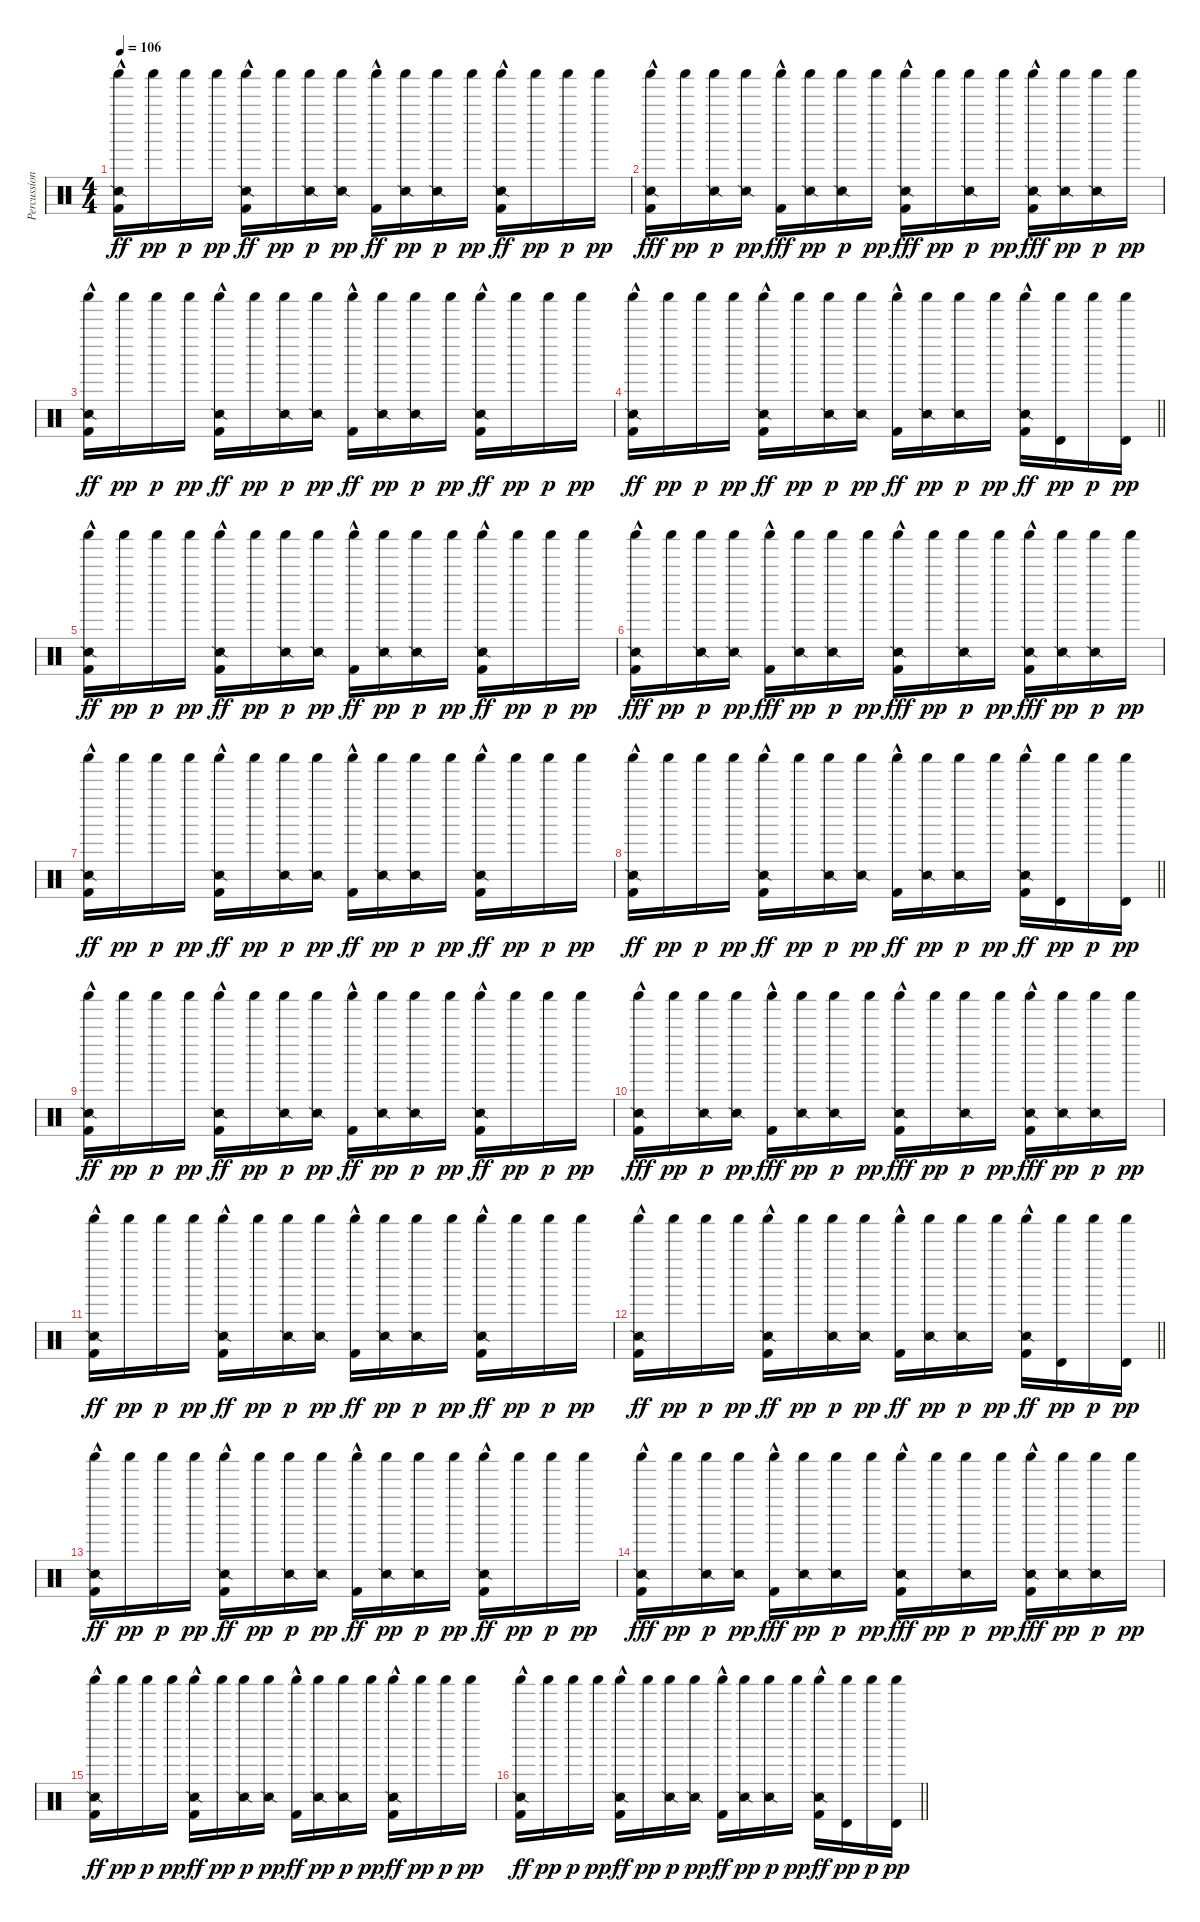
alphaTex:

\track ("Percussion" "Percussion") {instrument percussion}
\staff {score}
\articulation defaults
\ts (4 4)
\tempo 106
\clef neutral
\ks c
("Snare (side stick) 2" "Shaker (hit)" "Kick (hit) 2"{hac}).16{dy ff} "Shaker (hit)".16{dy pp} "Shaker (hit)".16{dy p} "Shaker (hit)".16{dy pp} ("Snare (side stick) 2" "Shaker (hit)" "Kick (hit) 2"{hac}).16{dy ff} "Shaker (hit)".16{dy pp} ("Snare (side stick) 2" "Shaker (hit)").16{dy p} ("Snare (side stick) 2" "Shaker (hit)").16{dy pp} ("Shaker (hit)" "Kick (hit) 2"{hac}).16{dy ff} ("Snare (side stick) 2" "Shaker (hit)").16{dy pp} ("Snare (side stick) 2" "Shaker (hit)").16{dy p} "Shaker (hit)".16{dy pp} ("Snare (side stick) 2" "Shaker (hit)" "Kick (hit) 2"{hac}).16{dy ff} "Shaker (hit)".16{dy pp} "Shaker (hit)".16{dy p} "Shaker (hit)".16{dy pp} |
("Snare (side stick) 2" "Shaker (hit)" "Kick (hit) 2"{hac}).16{dy fff} "Shaker (hit)".16{dy pp} ("Snare (side stick) 2" "Shaker (hit)").16{dy p} ("Snare (side stick) 2" "Shaker (hit)").16{dy pp} ("Shaker (hit)" "Kick (hit) 2"{hac}).16{dy fff} ("Snare (side stick) 2" "Shaker (hit)").16{dy pp} ("Snare (side stick) 2" "Shaker (hit)").16{dy p} "Shaker (hit)".16{dy pp} ("Snare (side stick) 2" "Shaker (hit)" "Kick (hit) 2"{hac}).16{dy fff} "Shaker (hit)".16{dy pp} ("Snare (side stick) 2" "Shaker (hit)").16{dy p} "Shaker (hit)".16{dy pp} ("Snare (side stick) 2" "Shaker (hit)" "Kick (hit) 2"{hac}).16{dy fff} ("Snare (side stick) 2" "Shaker (hit)").16{dy pp} ("Snare (side stick) 2" "Shaker (hit)").16{dy p} "Shaker (hit)".16{dy pp} |
("Snare (side stick) 2" "Shaker (hit)" "Kick (hit) 2"{hac}).16{dy ff} "Shaker (hit)".16{dy pp} "Shaker (hit)".16{dy p} "Shaker (hit)".16{dy pp} ("Snare (side stick) 2" "Shaker (hit)" "Kick (hit) 2"{hac}).16{dy ff} "Shaker (hit)".16{dy pp} ("Snare (side stick) 2" "Shaker (hit)").16{dy p} ("Snare (side stick) 2" "Shaker (hit)").16{dy pp} ("Shaker (hit)" "Kick (hit) 2"{hac}).16{dy ff} ("Snare (side stick) 2" "Shaker (hit)").16{dy pp} ("Snare (side stick) 2" "Shaker (hit)").16{dy p} "Shaker (hit)".16{dy pp} ("Snare (side stick) 2" "Shaker (hit)" "Kick (hit) 2"{hac}).16{dy ff} "Shaker (hit)".16{dy pp} "Shaker (hit)".16{dy p} "Shaker (hit)".16{dy pp} |
\barLineRight lightlight
("Snare (side stick) 2" "Shaker (hit)" "Kick (hit) 2"{hac}).16{dy ff} "Shaker (hit)".16{dy pp} "Shaker (hit)".16{dy p} "Shaker (hit)".16{dy pp} ("Snare (side stick) 2" "Shaker (hit)" "Kick (hit) 2"{hac}).16{dy ff} "Shaker (hit)".16{dy pp} ("Snare (side stick) 2" "Shaker (hit)").16{dy p} ("Snare (side stick) 2" "Shaker (hit)").16{dy pp} ("Shaker (hit)" "Kick (hit) 2"{hac}).16{dy ff} ("Snare (side stick) 2" "Shaker (hit)").16{dy pp} ("Snare (side stick) 2" "Shaker (hit)").16{dy p} "Shaker (hit)".16{dy pp} ("Snare (side stick) 2" "Shaker (hit)" "Kick (hit) 2"{hac}).16{dy ff} ("Timbale high (hit)" "Shaker (hit)").16{dy pp} "Shaker (hit)".16{dy p} ("Timbale high (hit)" "Shaker (hit)").16{dy pp} |
("Snare (side stick) 2" "Shaker (hit)" "Kick (hit) 2"{hac}).16{dy ff} "Shaker (hit)".16{dy pp} "Shaker (hit)".16{dy p} "Shaker (hit)".16{dy pp} ("Snare (side stick) 2" "Shaker (hit)" "Kick (hit) 2"{hac}).16{dy ff} "Shaker (hit)".16{dy pp} ("Snare (side stick) 2" "Shaker (hit)").16{dy p} ("Snare (side stick) 2" "Shaker (hit)").16{dy pp} ("Shaker (hit)" "Kick (hit) 2"{hac}).16{dy ff} ("Snare (side stick) 2" "Shaker (hit)").16{dy pp} ("Snare (side stick) 2" "Shaker (hit)").16{dy p} "Shaker (hit)".16{dy pp} ("Snare (side stick) 2" "Shaker (hit)" "Kick (hit) 2"{hac}).16{dy ff} "Shaker (hit)".16{dy pp} "Shaker (hit)".16{dy p} "Shaker (hit)".16{dy pp} |
("Snare (side stick) 2" "Shaker (hit)" "Kick (hit) 2"{hac}).16{dy fff} "Shaker (hit)".16{dy pp} ("Snare (side stick) 2" "Shaker (hit)").16{dy p} ("Snare (side stick) 2" "Shaker (hit)").16{dy pp} ("Shaker (hit)" "Kick (hit) 2"{hac}).16{dy fff} ("Snare (side stick) 2" "Shaker (hit)").16{dy pp} ("Snare (side stick) 2" "Shaker (hit)").16{dy p} "Shaker (hit)".16{dy pp} ("Snare (side stick) 2" "Shaker (hit)" "Kick (hit) 2"{hac}).16{dy fff} "Shaker (hit)".16{dy pp} ("Snare (side stick) 2" "Shaker (hit)").16{dy p} "Shaker (hit)".16{dy pp} ("Snare (side stick) 2" "Shaker (hit)" "Kick (hit) 2"{hac}).16{dy fff} ("Snare (side stick) 2" "Shaker (hit)").16{dy pp} ("Snare (side stick) 2" "Shaker (hit)").16{dy p} "Shaker (hit)".16{dy pp} |
("Snare (side stick) 2" "Shaker (hit)" "Kick (hit) 2"{hac}).16{dy ff} "Shaker (hit)".16{dy pp} "Shaker (hit)".16{dy p} "Shaker (hit)".16{dy pp} ("Snare (side stick) 2" "Shaker (hit)" "Kick (hit) 2"{hac}).16{dy ff} "Shaker (hit)".16{dy pp} ("Snare (side stick) 2" "Shaker (hit)").16{dy p} ("Snare (side stick) 2" "Shaker (hit)").16{dy pp} ("Shaker (hit)" "Kick (hit) 2"{hac}).16{dy ff} ("Snare (side stick) 2" "Shaker (hit)").16{dy pp} ("Snare (side stick) 2" "Shaker (hit)").16{dy p} "Shaker (hit)".16{dy pp} ("Snare (side stick) 2" "Shaker (hit)" "Kick (hit) 2"{hac}).16{dy ff} "Shaker (hit)".16{dy pp} "Shaker (hit)".16{dy p} "Shaker (hit)".16{dy pp} |
\barLineRight lightlight
("Snare (side stick) 2" "Shaker (hit)" "Kick (hit) 2"{hac}).16{dy ff} "Shaker (hit)".16{dy pp} "Shaker (hit)".16{dy p} "Shaker (hit)".16{dy pp} ("Snare (side stick) 2" "Shaker (hit)" "Kick (hit) 2"{hac}).16{dy ff} "Shaker (hit)".16{dy pp} ("Snare (side stick) 2" "Shaker (hit)").16{dy p} ("Snare (side stick) 2" "Shaker (hit)").16{dy pp} ("Shaker (hit)" "Kick (hit) 2"{hac}).16{dy ff} ("Snare (side stick) 2" "Shaker (hit)").16{dy pp} ("Snare (side stick) 2" "Shaker (hit)").16{dy p} "Shaker (hit)".16{dy pp} ("Snare (side stick) 2" "Shaker (hit)" "Kick (hit) 2"{hac}).16{dy ff} ("Timbale high (hit)" "Shaker (hit)").16{dy pp} "Shaker (hit)".16{dy p} ("Timbale high (hit)" "Shaker (hit)").16{dy pp} |
("Snare (side stick) 2" "Shaker (hit)" "Kick (hit) 2"{hac}).16{dy ff} "Shaker (hit)".16{dy pp} "Shaker (hit)".16{dy p} "Shaker (hit)".16{dy pp} ("Snare (side stick) 2" "Shaker (hit)" "Kick (hit) 2"{hac}).16{dy ff} "Shaker (hit)".16{dy pp} ("Snare (side stick) 2" "Shaker (hit)").16{dy p} ("Snare (side stick) 2" "Shaker (hit)").16{dy pp} ("Shaker (hit)" "Kick (hit) 2"{hac}).16{dy ff} ("Snare (side stick) 2" "Shaker (hit)").16{dy pp} ("Snare (side stick) 2" "Shaker (hit)").16{dy p} "Shaker (hit)".16{dy pp} ("Snare (side stick) 2" "Shaker (hit)" "Kick (hit) 2"{hac}).16{dy ff} "Shaker (hit)".16{dy pp} "Shaker (hit)".16{dy p} "Shaker (hit)".16{dy pp} |
("Snare (side stick) 2" "Shaker (hit)" "Kick (hit) 2"{hac}).16{dy fff} "Shaker (hit)".16{dy pp} ("Snare (side stick) 2" "Shaker (hit)").16{dy p} ("Snare (side stick) 2" "Shaker (hit)").16{dy pp} ("Shaker (hit)" "Kick (hit) 2"{hac}).16{dy fff} ("Snare (side stick) 2" "Shaker (hit)").16{dy pp} ("Snare (side stick) 2" "Shaker (hit)").16{dy p} "Shaker (hit)".16{dy pp} ("Snare (side stick) 2" "Shaker (hit)" "Kick (hit) 2"{hac}).16{dy fff} "Shaker (hit)".16{dy pp} ("Snare (side stick) 2" "Shaker (hit)").16{dy p} "Shaker (hit)".16{dy pp} ("Snare (side stick) 2" "Shaker (hit)" "Kick (hit) 2"{hac}).16{dy fff} ("Snare (side stick) 2" "Shaker (hit)").16{dy pp} ("Snare (side stick) 2" "Shaker (hit)").16{dy p} "Shaker (hit)".16{dy pp} |
("Snare (side stick) 2" "Shaker (hit)" "Kick (hit) 2"{hac}).16{dy ff} "Shaker (hit)".16{dy pp} "Shaker (hit)".16{dy p} "Shaker (hit)".16{dy pp} ("Snare (side stick) 2" "Shaker (hit)" "Kick (hit) 2"{hac}).16{dy ff} "Shaker (hit)".16{dy pp} ("Snare (side stick) 2" "Shaker (hit)").16{dy p} ("Snare (side stick) 2" "Shaker (hit)").16{dy pp} ("Shaker (hit)" "Kick (hit) 2"{hac}).16{dy ff} ("Snare (side stick) 2" "Shaker (hit)").16{dy pp} ("Snare (side stick) 2" "Shaker (hit)").16{dy p} "Shaker (hit)".16{dy pp} ("Snare (side stick) 2" "Shaker (hit)" "Kick (hit) 2"{hac}).16{dy ff} "Shaker (hit)".16{dy pp} "Shaker (hit)".16{dy p} "Shaker (hit)".16{dy pp} |
\barLineRight lightlight
("Snare (side stick) 2" "Shaker (hit)" "Kick (hit) 2"{hac}).16{dy ff} "Shaker (hit)".16{dy pp} "Shaker (hit)".16{dy p} "Shaker (hit)".16{dy pp} ("Snare (side stick) 2" "Shaker (hit)" "Kick (hit) 2"{hac}).16{dy ff} "Shaker (hit)".16{dy pp} ("Snare (side stick) 2" "Shaker (hit)").16{dy p} ("Snare (side stick) 2" "Shaker (hit)").16{dy pp} ("Shaker (hit)" "Kick (hit) 2"{hac}).16{dy ff} ("Snare (side stick) 2" "Shaker (hit)").16{dy pp} ("Snare (side stick) 2" "Shaker (hit)").16{dy p} "Shaker (hit)".16{dy pp} ("Snare (side stick) 2" "Shaker (hit)" "Kick (hit) 2"{hac}).16{dy ff} ("Timbale high (hit)" "Shaker (hit)").16{dy pp} "Shaker (hit)".16{dy p} ("Timbale high (hit)" "Shaker (hit)").16{dy pp} |
("Snare (side stick) 2" "Shaker (hit)" "Kick (hit) 2"{hac}).16{dy ff} "Shaker (hit)".16{dy pp} "Shaker (hit)".16{dy p} "Shaker (hit)".16{dy pp} ("Snare (side stick) 2" "Shaker (hit)" "Kick (hit) 2"{hac}).16{dy ff} "Shaker (hit)".16{dy pp} ("Snare (side stick) 2" "Shaker (hit)").16{dy p} ("Snare (side stick) 2" "Shaker (hit)").16{dy pp} ("Shaker (hit)" "Kick (hit) 2"{hac}).16{dy ff} ("Snare (side stick) 2" "Shaker (hit)").16{dy pp} ("Snare (side stick) 2" "Shaker (hit)").16{dy p} "Shaker (hit)".16{dy pp} ("Snare (side stick) 2" "Shaker (hit)" "Kick (hit) 2"{hac}).16{dy ff} "Shaker (hit)".16{dy pp} "Shaker (hit)".16{dy p} "Shaker (hit)".16{dy pp} |
("Snare (side stick) 2" "Shaker (hit)" "Kick (hit) 2"{hac}).16{dy fff} "Shaker (hit)".16{dy pp} ("Snare (side stick) 2" "Shaker (hit)").16{dy p} ("Snare (side stick) 2" "Shaker (hit)").16{dy pp} ("Shaker (hit)" "Kick (hit) 2"{hac}).16{dy fff} ("Snare (side stick) 2" "Shaker (hit)").16{dy pp} ("Snare (side stick) 2" "Shaker (hit)").16{dy p} "Shaker (hit)".16{dy pp} ("Snare (side stick) 2" "Shaker (hit)" "Kick (hit) 2"{hac}).16{dy fff} "Shaker (hit)".16{dy pp} ("Snare (side stick) 2" "Shaker (hit)").16{dy p} "Shaker (hit)".16{dy pp} ("Snare (side stick) 2" "Shaker (hit)" "Kick (hit) 2"{hac}).16{dy fff} ("Snare (side stick) 2" "Shaker (hit)").16{dy pp} ("Snare (side stick) 2" "Shaker (hit)").16{dy p} "Shaker (hit)".16{dy pp} |
("Snare (side stick) 2" "Shaker (hit)" "Kick (hit) 2"{hac}).16{dy ff} "Shaker (hit)".16{dy pp} "Shaker (hit)".16{dy p} "Shaker (hit)".16{dy pp} ("Snare (side stick) 2" "Shaker (hit)" "Kick (hit) 2"{hac}).16{dy ff} "Shaker (hit)".16{dy pp} ("Snare (side stick) 2" "Shaker (hit)").16{dy p} ("Snare (side stick) 2" "Shaker (hit)").16{dy pp} ("Shaker (hit)" "Kick (hit) 2"{hac}).16{dy ff} ("Snare (side stick) 2" "Shaker (hit)").16{dy pp} ("Snare (side stick) 2" "Shaker (hit)").16{dy p} "Shaker (hit)".16{dy pp} ("Snare (side stick) 2" "Shaker (hit)" "Kick (hit) 2"{hac}).16{dy ff} "Shaker (hit)".16{dy pp} "Shaker (hit)".16{dy p} "Shaker (hit)".16{dy pp} |
\barLineRight lightlight
("Snare (side stick) 2" "Shaker (hit)" "Kick (hit) 2"{hac}).16{dy ff} "Shaker (hit)".16{dy pp} "Shaker (hit)".16{dy p} "Shaker (hit)".16{dy pp} ("Snare (side stick) 2" "Shaker (hit)" "Kick (hit) 2"{hac}).16{dy ff} "Shaker (hit)".16{dy pp} ("Snare (side stick) 2" "Shaker (hit)").16{dy p} ("Snare (side stick) 2" "Shaker (hit)").16{dy pp} ("Shaker (hit)" "Kick (hit) 2"{hac}).16{dy ff} ("Snare (side stick) 2" "Shaker (hit)").16{dy pp} ("Snare (side stick) 2" "Shaker (hit)").16{dy p} "Shaker (hit)".16{dy pp} ("Snare (side stick) 2" "Shaker (hit)" "Kick (hit) 2"{hac}).16{dy ff} ("Timbale high (hit)" "Shaker (hit)").16{dy pp} "Shaker (hit)".16{dy p} ("Timbale high (hit)" "Shaker (hit)").16{dy pp}
